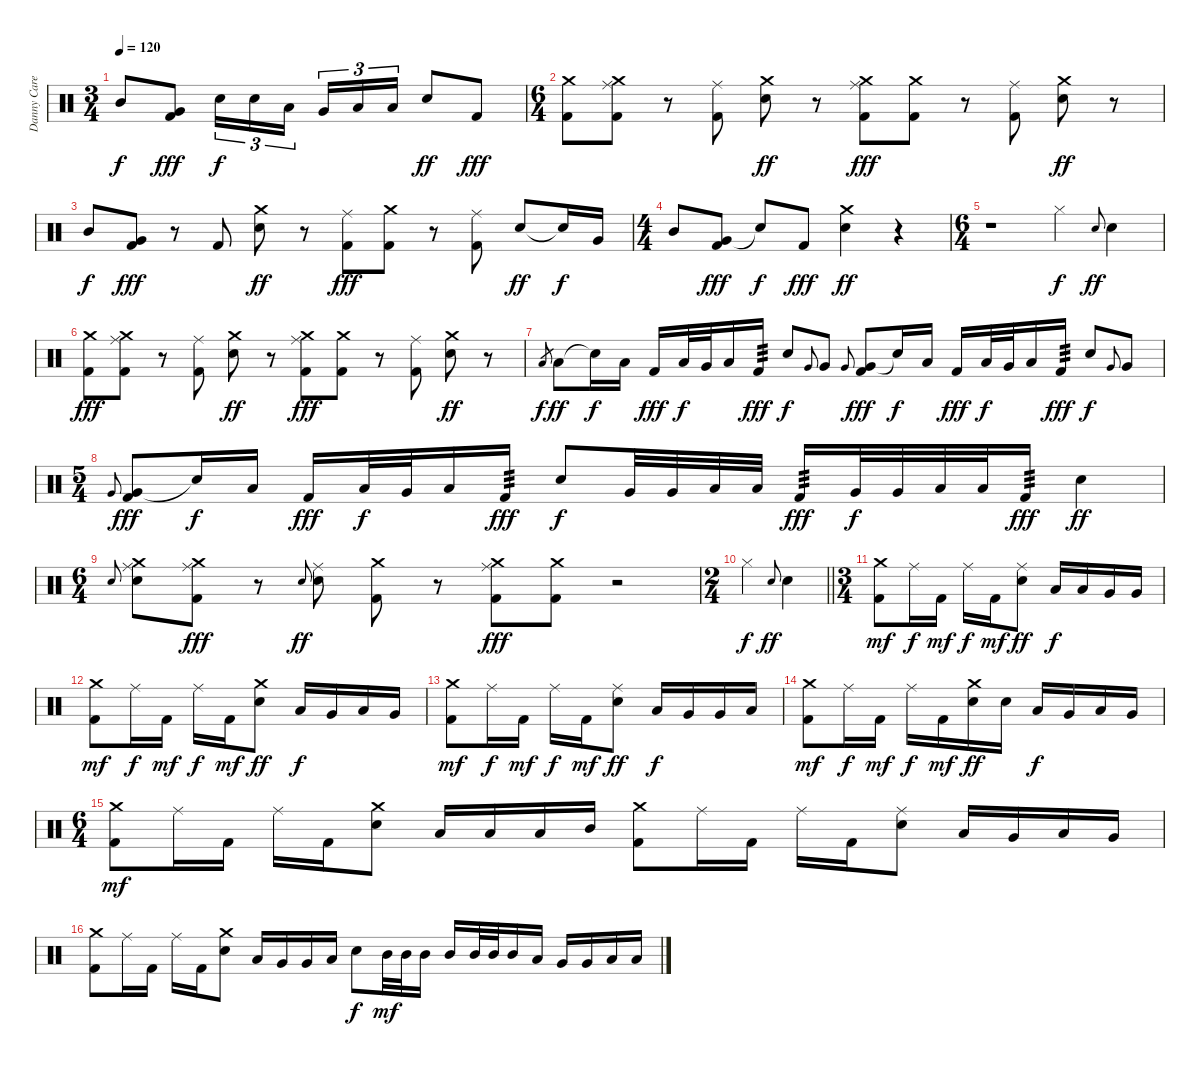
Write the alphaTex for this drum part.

\track ("Danny Carey" "Danny Care") {instrument percussion}
\staff {score}
\articulation defaults
\ts (3 4)
\tempo 120
\clef neutral
\ks c "Mid Tom (hit)".8{dy f}
("Very Low Tom (hit)" "Kick (hit) 2").8{dy fff} "Snare (hit) 2".16{tu (3 2) dy f} "Snare (hit) 2".16{tu (3 2)} "Low Tom (hit)".16{tu (3 2) beam splitsecondary} "Very Low Tom (hit)".16{tu (3 2)} "Low Floor Tom (hit)".16{tu (3 2)} "Low Floor Tom (hit)".16{tu (3 2)} "Snare (hit) 2".8{dy ff} "Kick (hit) 2".8{dy fff} |
\ts (6 4)
("Crash medium (hit)" "Kick (hit) 2").8 ("Crash medium (hit)" "Ride (middle)" "Kick (hit) 2").8 r.8 ("Ride (middle)" "Kick (hit) 2").8 ("Crash medium (hit)" "Snare (hit) 2").8{dy ff} r.8 ("Crash medium (hit)" "Ride (middle)" "Kick (hit) 2").8{dy fff} ("Crash medium (hit)" "Kick (hit) 2").8 r.8 ("Ride (middle)" "Kick (hit) 2").8 ("Crash medium (hit)" "Snare (hit) 2").8{dy ff} r.8 |
"Mid Tom (hit)".8{dy f} ("Very Low Tom (hit)" "Kick (hit) 2").8{dy fff} r.8 "Kick (hit) 2".8 ("Crash medium (hit)" "Snare (hit) 2").8{dy ff} r.8 ("Ride (middle)" "Kick (hit) 2").8{dy fff} ("Crash medium (hit)" "Kick (hit) 2").8 r.8 ("Ride (middle)" "Kick (hit) 2").8 "Snare (hit) 2".8{dy ff} "Snare (hit)"{t}.16{dy f} "Very Low Tom (hit)".16 |
\ts (4 4)
"Mid Tom (hit)".8 ("Very Low Tom (hit)" "Kick (hit) 2").8{dy fff} "Snare (hit)"{t}.8{dy f} "Kick (hit) 2".8{dy fff} ("Crash medium (hit)" "Snare (hit) 2").4{dy ff} r.4 |
\ts (6 4)
r.1 "Hi-Hat (closed)".4{dy f} "Snare (hit) 2".8{gr onbeat dy ff} "Snare (hit) 2".4 |
("Crash medium (hit)" "Kick (hit) 2").8{dy fff} ("Crash medium (hit)" "Ride (middle)" "Kick (hit) 2").8 r.8 ("Ride (middle)" "Kick (hit) 2").8 ("Crash medium (hit)" "Snare (hit) 2").8{dy ff} r.8 ("Crash medium (hit)" "Ride (middle)" "Kick (hit) 2").8{dy fff} ("Crash medium (hit)" "Kick (hit) 2").8 r.8 ("Ride (middle)" "Kick (hit) 2").8 ("Crash medium (hit)" "Snare (hit) 2").8{dy ff} r.8 |
"Low Tom (hit)".8{gr dy f} "Low Tom (hit)".8{dy ff} "Snare (hit)"{t}.16{dy f} "Low Tom (hit)".16 "Kick (hit) 2".16{dy fff} "Low Floor Tom (hit)".32{dy f} "Very Low Tom (hit)".32 "Low Floor Tom (hit)".16 "Kick (hit) 2".16{tp 3 dy fff} "Snare (hit) 2".8{dy f} "Very Low Tom (hit)".8{gr onbeat} "Very Low Tom (hit)".8 "Very Low Tom (hit)".8{gr onbeat} ("Very Low Tom (hit)" "Kick (hit) 2").8{dy fff} "Snare (hit)"{t}.16{dy f} "Low Tom (hit)".16 "Kick (hit) 2".16{dy fff} "Low Floor Tom (hit)".32{dy f} "Very Low Tom (hit)".32 "Low Floor Tom (hit)".16 "Kick (hit) 2".16{tp 3 dy fff} "Snare (hit) 2".8{dy f} "Very Low Tom (hit)".8{gr onbeat} "Very Low Tom (hit)".8 |
\ts (5 4)
"Very Low Tom (hit)".8{gr onbeat} ("Very Low Tom (hit)" "Kick (hit) 2").8{dy fff} "Snare (hit)"{t}.16{dy f} "Low Tom (hit)".16 "Kick (hit) 2".16{dy fff} "Low Floor Tom (hit)".32{dy f} "Very Low Tom (hit)".32 "Low Floor Tom (hit)".16 "Kick (hit) 2".16{tp 3 dy fff} "Snare (hit) 2".8{dy f} "Very Low Tom (hit)".32 "Very Low Tom (hit)".32 "Low Floor Tom (hit)".32 "Low Floor Tom (hit)".32 "Kick (hit) 2".16{tp 3 dy fff} "Very Low Tom (hit)".32{dy f} "Very Low Tom (hit)".32 "Low Floor Tom (hit)".32 "Low Floor Tom (hit)".32 "Kick (hit) 2".16{tp 3 dy fff} "Snare (hit) 2".4{dy ff} |
\ts (6 4)
"Snare (hit) 2".8{gr onbeat} ("Crash medium (hit)" "Ride (middle)" "Snare (hit) 2").8 ("Crash medium (hit)" "Ride (middle)" "Kick (hit) 2").8{dy fff} r.8 "Snare (hit) 2".8{gr onbeat dy ff} ("Ride (middle)" "Snare (hit) 2").8 ("Crash medium (hit)" "Kick (hit) 2").8 r.8 ("Crash medium (hit)" "Ride (middle)" "Kick (hit) 2").8{dy fff} ("Crash medium (hit)" "Kick (hit) 2").8 r.2 |
\ts (2 4)
\barLineRight lightlight "Hi-Hat (closed)".4{dy f} "Snare (hit) 2".8{gr onbeat dy ff} "Snare (hit) 2".4
|
\ts (3 4)
\section ("" "")
("Crash medium (hit)" "Kick (hit) 2").8{dy mf} "Ride (middle)".16{dy f} "Kick (hit) 2".16{dy mf} "Ride (middle)".16{dy f} "Kick (hit) 2".16{dy mf} ("Ride (middle)" "Snare (hit) 2").8{dy ff} "Low Tom (hit)".16{dy f} "Low Tom (hit)".16 "Very Low Tom (hit)".16 "Very Low Tom (hit)".16 |
("Crash medium (hit)" "Kick (hit) 2").8{dy mf} "Ride (middle)".16{dy f} "Kick (hit) 2".16{dy mf} "Ride (middle)".16{dy f} "Kick (hit) 2".16{dy mf} ("Crash medium (hit)" "Snare (hit) 2").8{dy ff} "Low Tom (hit)".16{dy f} "Very Low Tom (hit)".16 "Low Tom (hit)".16 "Very Low Tom (hit)".16 |
("Crash medium (hit)" "Kick (hit) 2").8{dy mf} "Ride (middle)".16{dy f} "Kick (hit) 2".16{dy mf} "Ride (middle)".16{dy f} "Kick (hit) 2".16{dy mf} ("Ride (middle)" "Snare (hit) 2").8{dy ff} "Low Tom (hit)".16{dy f} "Very Low Tom (hit)".16 "Very Low Tom (hit)".16 "Low Floor Tom (hit)".16 |
("Crash medium (hit)" "Kick (hit) 2").8{dy mf} "Ride (middle)".16{dy f} "Kick (hit) 2".16{dy mf} "Ride (middle)".16{dy f} "Kick (hit) 2".16{dy mf} ("Crash medium (hit)" "Snare (hit) 2").16{dy ff} "Snare (hit) 2".16 "Low Tom (hit)".16{dy f} "Very Low Tom (hit)".16 "Low Tom (hit)".16 "Very Low Tom (hit)".16 |
\ts (6 4)
("Crash medium (hit)" "Kick (hit) 2").8{dy mf} "Ride (middle)".16 "Kick (hit) 2".16 "Ride (middle)".16 "Kick (hit) 2".16 ("Crash medium (hit)" "Snare (hit) 2").8 "Low Tom (hit)".16 "Low Tom (hit)".16 "Low Tom (hit)".16 "Mid Tom (hit)".16 ("Crash medium (hit)" "Kick (hit) 2").8 "Ride (middle)".16 "Kick (hit) 2".16 "Ride (middle)".16 "Kick (hit) 2".16 ("Ride (middle)" "Snare (hit) 2").8 "Low Tom (hit)".16 "Very Low Tom (hit)".16 "Low Tom (hit)".16 "Very Low Tom (hit)".16 |
("Crash medium (hit)" "Kick (hit) 2").8 "Ride (middle)".16 "Kick (hit) 2".16 "Ride (middle)".16 "Kick (hit) 2".16 ("Crash medium (hit)" "Snare (hit) 2").8 "Low Tom (hit)".16 "Very Low Tom (hit)".16 "Very Low Tom (hit)".16 "Low Floor Tom (hit)".16 "Snare (hit) 2".8{dy f} "Mid Tom (hit)".32{dy mf} "Mid Tom (hit)".32 "Mid Tom (hit)".16 "Mid Tom (hit)".16 "Mid Tom (hit)".32 "Mid Tom (hit)".32 "Mid Tom (hit)".16 "Low Tom (hit)".16 "Very Low Tom (hit)".16 "Very Low Tom (hit)".16 "Low Floor Tom (hit)".16 "Low Floor Tom (hit)".16
